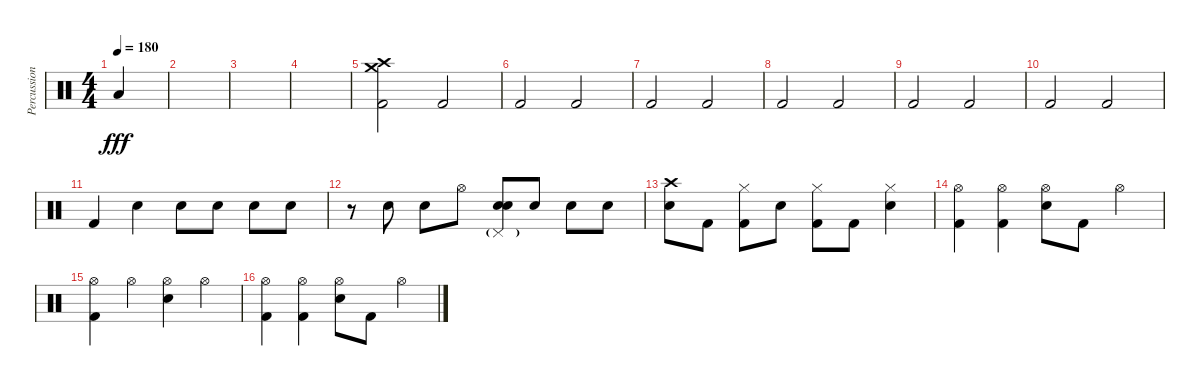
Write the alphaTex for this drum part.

\track ("Percussion" "Percussion") {instrument percussion}
\staff {score}
\articulation defaults
\ts (4 4)
\tempo 180
\clef neutral
\ks c "Low Floor Tom (hit)".4{dy fff}
|
|
|
|
("Crash high (hit)" "Crash medium (hit)" "Kick (hit) 2").2 "Kick (hit) 2".2 |
"Kick (hit) 2".2 "Kick (hit) 2".2 |
"Kick (hit) 2".2 "Kick (hit) 2".2 |
"Kick (hit) 2".2 "Kick (hit) 2".2 |
"Kick (hit) 2".2 "Kick (hit) 2".2 |
"Kick (hit) 2".2 "Kick (hit) 2".2 |
"Kick (hit) 2".4 "Electric Snare (hit)".4 "Electric Snare (hit)".8 "Electric Snare (hit)".8 "Electric Snare (hit)".8 "Electric Snare (hit)".8 |
r.8 "Electric Snare (hit)".8 "Electric Snare (hit)".8 "Hi-Hat (open)".8 ("Pedal Hi-Hat (hit)"{g} "Electric Snare (hit)" "Electric Snare (hit)").8{bd 480} "Electric Snare (hit)".8 "Electric Snare (hit)".8 "Electric Snare (hit)".8 |
("Crash high (hit)" "Electric Snare (hit)").8 "Kick (hit) 2".8 ("Hi-Hat (closed)" "Kick (hit) 2").8 "Electric Snare (hit)".8 ("Hi-Hat (closed)" "Kick (hit) 2").8 "Kick (hit) 2".8 ("Hi-Hat (closed)" "Electric Snare (hit)").4 |
("Hi-Hat (open)" "Kick (hit) 2").4 ("Hi-Hat (open)" "Kick (hit) 2").4 ("Hi-Hat (open)" "Electric Snare (hit)").8 "Kick (hit) 2".8 "Hi-Hat (open)".4 |
("Hi-Hat (open)" "Kick (hit) 2").4 "Hi-Hat (open)".4 ("Hi-Hat (open)" "Electric Snare (hit)").4 "Hi-Hat (open)".4 |
("Hi-Hat (open)" "Kick (hit) 2").4 ("Hi-Hat (open)" "Kick (hit) 2").4 ("Hi-Hat (open)" "Electric Snare (hit)").8 "Kick (hit) 2".8 "Hi-Hat (open)".4
